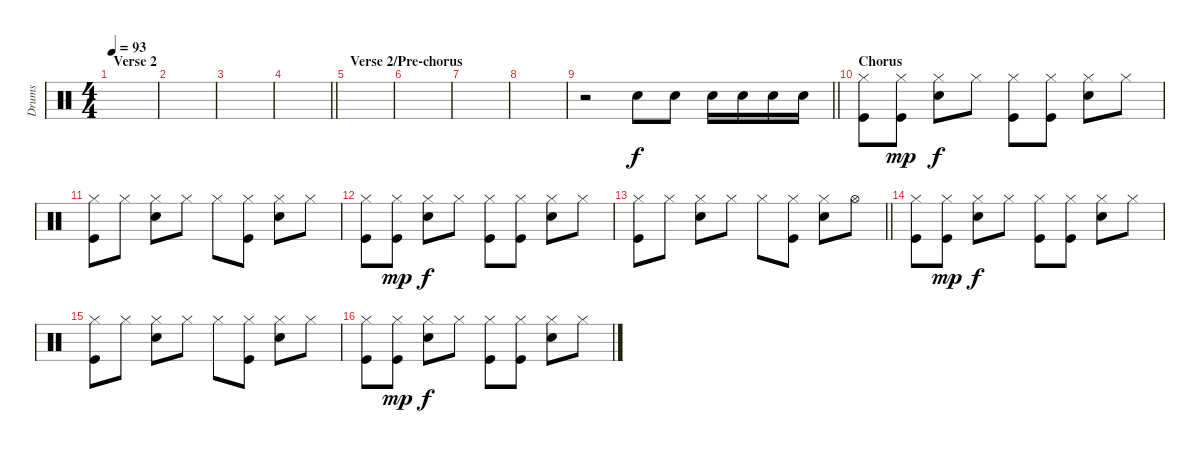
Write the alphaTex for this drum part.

\track ("Drums" "Drums") {instrument percussion}
\staff {score}
\articulation defaults
\ts (4 4)
\section ("" "Verse 2")
\tempo 93
\clef neutral
\ks c
|
|
|
\barLineRight lightlight
|
\section ("" "Verse 2/Pre-chorus")
|
|
|
|
\barLineRight lightlight
r.2 "Electric Snare (hit)".8 "Electric Snare (hit)".8 "Electric Snare (hit)".16 "Electric Snare (hit)".16 "Electric Snare (hit)".16 "Electric Snare (hit)".16 |
\section ("" "Chorus")
("Hi-Hat (closed)" "Kick (hit)").8 ("Hi-Hat (closed)" "Kick (hit)").8{dy mp} ("Hi-Hat (closed)" "Electric Snare (hit)").8{dy f} "Hi-Hat (closed)".8 ("Hi-Hat (closed)" "Kick (hit)").8 ("Hi-Hat (closed)" "Kick (hit)").8 ("Hi-Hat (closed)" "Electric Snare (hit)").8 "Hi-Hat (closed)".8 |
("Hi-Hat (closed)" "Kick (hit)").8 "Hi-Hat (closed)".8 ("Hi-Hat (closed)" "Electric Snare (hit)").8 "Hi-Hat (closed)".8 "Hi-Hat (closed)".8 ("Hi-Hat (closed)" "Kick (hit)").8 ("Hi-Hat (closed)" "Electric Snare (hit)").8 "Hi-Hat (closed)".8 |
("Hi-Hat (closed)" "Kick (hit)").8 ("Hi-Hat (closed)" "Kick (hit)").8{dy mp} ("Hi-Hat (closed)" "Electric Snare (hit)").8{dy f} "Hi-Hat (closed)".8 ("Hi-Hat (closed)" "Kick (hit)").8 ("Hi-Hat (closed)" "Kick (hit)").8 ("Hi-Hat (closed)" "Electric Snare (hit)").8 "Hi-Hat (closed)".8 |
\barLineRight lightlight
("Hi-Hat (closed)" "Kick (hit)").8 "Hi-Hat (closed)".8 ("Hi-Hat (closed)" "Electric Snare (hit)").8 "Hi-Hat (closed)".8 "Hi-Hat (closed)".8 ("Hi-Hat (closed)" "Kick (hit)").8 ("Hi-Hat (closed)" "Electric Snare (hit)").8 "Hi-Hat (open)".8 |
("Hi-Hat (closed)" "Kick (hit)").8 ("Hi-Hat (closed)" "Kick (hit)").8{dy mp} ("Hi-Hat (closed)" "Electric Snare (hit)").8{dy f} "Hi-Hat (closed)".8 ("Hi-Hat (closed)" "Kick (hit)").8 ("Hi-Hat (closed)" "Kick (hit)").8 ("Hi-Hat (closed)" "Electric Snare (hit)").8 "Hi-Hat (closed)".8 |
("Hi-Hat (closed)" "Kick (hit)").8 "Hi-Hat (closed)".8 ("Hi-Hat (closed)" "Electric Snare (hit)").8 "Hi-Hat (closed)".8 "Hi-Hat (closed)".8 ("Hi-Hat (closed)" "Kick (hit)").8 ("Hi-Hat (closed)" "Electric Snare (hit)").8 "Hi-Hat (closed)".8 |
("Hi-Hat (closed)" "Kick (hit)").8 ("Hi-Hat (closed)" "Kick (hit)").8{dy mp} ("Hi-Hat (closed)" "Electric Snare (hit)").8{dy f} "Hi-Hat (closed)".8 ("Hi-Hat (closed)" "Kick (hit)").8 ("Hi-Hat (closed)" "Kick (hit)").8 ("Hi-Hat (closed)" "Electric Snare (hit)").8 "Hi-Hat (closed)".8
